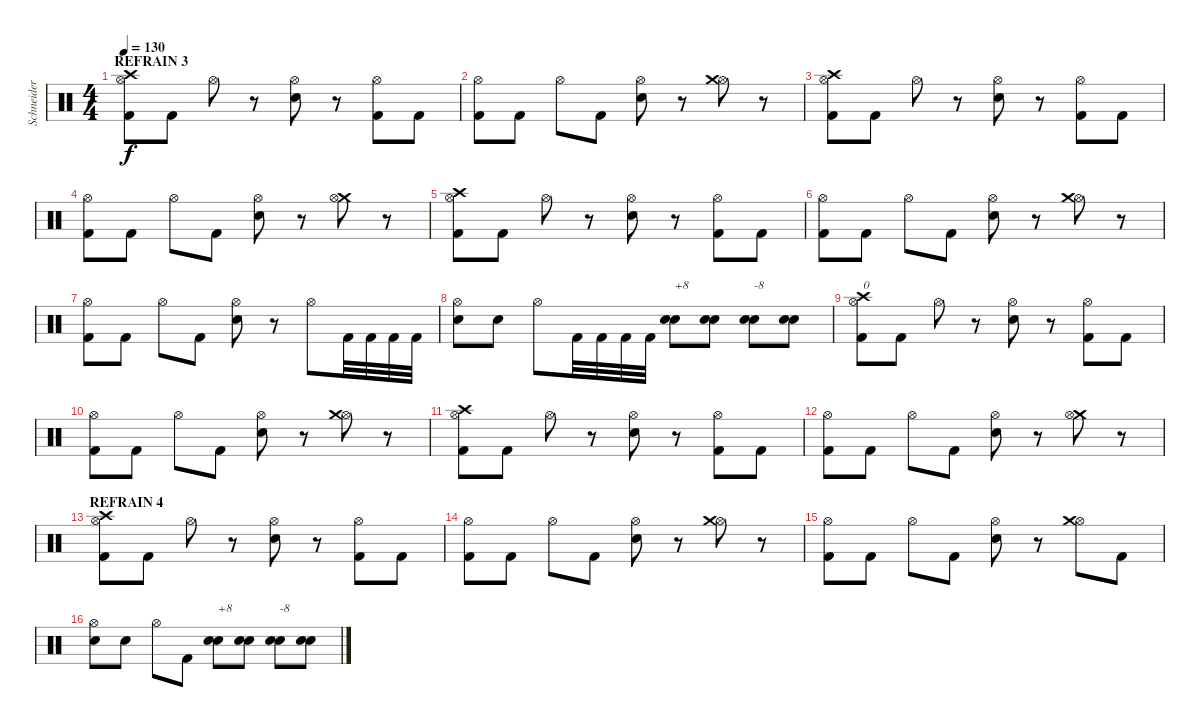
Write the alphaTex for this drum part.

\track ("Schneider - Drums" "Schneider ") {instrument percussion}
\staff {score}
\articulation defaults
\ts (4 4)
\section ("" "REFRAIN 3")
\tempo 130
\clef neutral
\ks c
("Kick (hit) 2" "Hi-Hat (open)" "Crash high (hit)").8{dy f} "Kick (hit) 2".8 "Hi-Hat (open)".8 r.8 ("Electric Snare (hit)" "Hi-Hat (open)").8 r.8 ("Kick (hit) 2" "Hi-Hat (open)").8 "Kick (hit) 2".8 |
("Kick (hit) 2" "Hi-Hat (open)").8 "Kick (hit) 2".8 "Hi-Hat (open)".8 "Kick (hit) 2".8 ("Electric Snare (hit)" "Hi-Hat (open)").8 r.8 ("Hi-Hat (open)" "Crash medium (hit)").8 r.8 |
("Kick (hit) 2" "Hi-Hat (open)" "Crash high (hit)").8 "Kick (hit) 2".8 "Hi-Hat (open)".8 r.8 ("Electric Snare (hit)" "Hi-Hat (open)").8 r.8 ("Kick (hit) 2" "Hi-Hat (open)").8 "Kick (hit) 2".8 |
("Kick (hit) 2" "Hi-Hat (open)").8 "Kick (hit) 2".8 "Hi-Hat (open)".8 "Kick (hit) 2".8 ("Electric Snare (hit)" "Hi-Hat (open)").8 r.8 ("Crash medium (hit)" "Hi-Hat (open)").8 r.8 |
("Kick (hit) 2" "Hi-Hat (open)" "Crash high (hit)").8 "Kick (hit) 2".8 "Hi-Hat (open)".8 r.8 ("Electric Snare (hit)" "Hi-Hat (open)").8 r.8 ("Kick (hit) 2" "Hi-Hat (open)").8 "Kick (hit) 2".8 |
("Kick (hit) 2" "Hi-Hat (open)").8 "Kick (hit) 2".8 "Hi-Hat (open)".8 "Kick (hit) 2".8 ("Electric Snare (hit)" "Hi-Hat (open)").8 r.8 ("Hi-Hat (open)" "Crash medium (hit)").8 r.8 |
("Kick (hit) 2" "Hi-Hat (open)").8 "Kick (hit) 2".8 "Hi-Hat (open)".8 "Kick (hit) 2".8 ("Electric Snare (hit)" "Hi-Hat (open)").8 r.8 "Hi-Hat (open)".8 "Kick (hit) 2".32 "Kick (hit) 2".32 "Kick (hit) 2".32 "Kick (hit) 2".32 |
("Electric Snare (hit)" "Hi-Hat (open)").8 "Electric Snare (hit)".8 "Hi-Hat (open)".8 "Kick (hit) 2".32 "Kick (hit) 2".32 "Kick (hit) 2".32 "Kick (hit) 2".32 ("Electric Snare (hit)" "Electric Snare (hit)").8{txt "+8" balance 16} ("Electric Snare (hit)" "Electric Snare (hit)").8 ("Electric Snare (hit)" "Electric Snare (hit)").8{txt "-8" balance 0} ("Electric Snare (hit)" "Electric Snare (hit)").8 |
("Kick (hit) 2" "Hi-Hat (open)" "Crash high (hit)").8{txt "0" balance 8} "Kick (hit) 2".8 "Hi-Hat (open)".8 r.8 ("Electric Snare (hit)" "Hi-Hat (open)").8 r.8 ("Kick (hit) 2" "Hi-Hat (open)").8 "Kick (hit) 2".8 |
("Kick (hit) 2" "Hi-Hat (open)").8 "Kick (hit) 2".8 "Hi-Hat (open)".8 "Kick (hit) 2".8 ("Electric Snare (hit)" "Hi-Hat (open)").8 r.8 ("Hi-Hat (open)" "Crash medium (hit)").8 r.8 |
("Kick (hit) 2" "Hi-Hat (open)" "Crash high (hit)").8 "Kick (hit) 2".8 "Hi-Hat (open)".8 r.8 ("Electric Snare (hit)" "Hi-Hat (open)").8 r.8 ("Kick (hit) 2" "Hi-Hat (open)").8 "Kick (hit) 2".8 |
("Kick (hit) 2" "Hi-Hat (open)").8 "Kick (hit) 2".8 "Hi-Hat (open)".8 "Kick (hit) 2".8 ("Electric Snare (hit)" "Hi-Hat (open)").8 r.8 ("Crash medium (hit)" "Hi-Hat (open)").8 r.8 |
\section ("" "REFRAIN 4")
("Kick (hit) 2" "Hi-Hat (open)" "Crash high (hit)").8 "Kick (hit) 2".8 "Hi-Hat (open)".8 r.8 ("Electric Snare (hit)" "Hi-Hat (open)").8 r.8 ("Kick (hit) 2" "Hi-Hat (open)").8 "Kick (hit) 2".8 |
("Kick (hit) 2" "Hi-Hat (open)").8 "Kick (hit) 2".8 "Hi-Hat (open)".8 "Kick (hit) 2".8 ("Electric Snare (hit)" "Hi-Hat (open)").8 r.8 ("Hi-Hat (open)" "Crash medium (hit)").8 r.8 |
("Kick (hit) 2" "Hi-Hat (open)").8 "Kick (hit) 2".8 "Hi-Hat (open)".8 "Kick (hit) 2".8 ("Electric Snare (hit)" "Hi-Hat (open)").8 r.8 ("Hi-Hat (open)" "Crash medium (hit)").8 "Kick (hit) 2".8 |
("Electric Snare (hit)" "Hi-Hat (open)").8 "Electric Snare (hit)".8 "Hi-Hat (open)".8 "Kick (hit) 2".8 ("Electric Snare (hit)" "Electric Snare (hit)").8{txt "+8" balance 16} ("Electric Snare (hit)" "Electric Snare (hit)").8 ("Electric Snare (hit)" "Electric Snare (hit)").8{txt "-8" balance 0} ("Electric Snare (hit)" "Electric Snare (hit)").8
